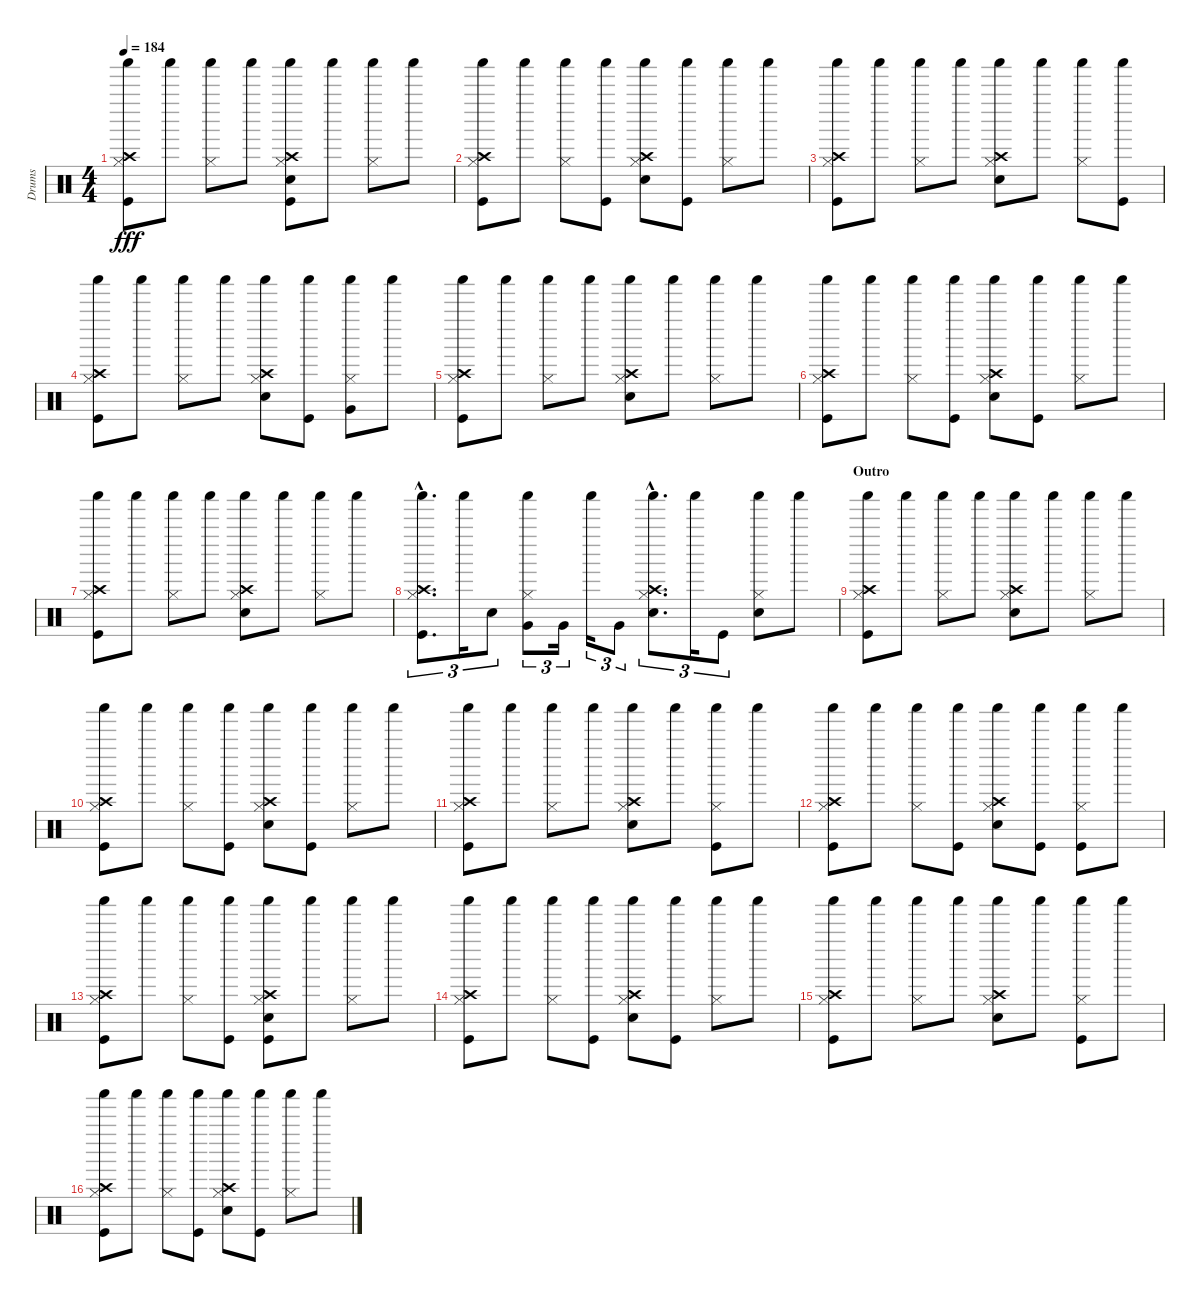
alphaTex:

\track ("Drums" "Drums") {instrument percussion}
\staff {score}
\articulation defaults
\ts (4 4)
\tempo 184
\clef neutral
\ks c
("Hi-Hat (closed)" "Shaker (hit)" "Crash high (hit)" "Kick (hit)").8{dy fff} "Shaker (hit)".8 ("Hi-Hat (closed)" "Shaker (hit)").8 "Shaker (hit)".8 ("Hi-Hat (closed)" "Shaker (hit)" "Crash high (hit)" "Snare (hit) 2" "Kick (hit)").8 "Shaker (hit)".8 ("Hi-Hat (closed)" "Shaker (hit)").8 "Shaker (hit)".8 |
("Hi-Hat (closed)" "Shaker (hit)" "Crash high (hit)" "Kick (hit)").8 "Shaker (hit)".8 ("Hi-Hat (closed)" "Shaker (hit)").8 ("Shaker (hit)" "Kick (hit)").8 ("Hi-Hat (closed)" "Shaker (hit)" "Crash high (hit)" "Snare (hit) 2").8 ("Shaker (hit)" "Kick (hit)").8 ("Hi-Hat (closed)" "Shaker (hit)").8 "Shaker (hit)".8 |
("Hi-Hat (closed)" "Shaker (hit)" "Crash high (hit)" "Kick (hit)").8 "Shaker (hit)".8 ("Hi-Hat (closed)" "Shaker (hit)").8 "Shaker (hit)".8 ("Hi-Hat (closed)" "Shaker (hit)" "Crash high (hit)" "Snare (hit) 2").8 "Shaker (hit)".8 ("Hi-Hat (closed)" "Shaker (hit)").8 ("Shaker (hit)" "Kick (hit)").8 |
("Hi-Hat (closed)" "Shaker (hit)" "Crash high (hit)" "Kick (hit)").8 "Shaker (hit)".8 ("Hi-Hat (closed)" "Shaker (hit)").8 "Shaker (hit)".8 ("Hi-Hat (closed)" "Shaker (hit)" "Crash high (hit)" "Snare (hit) 2").8 ("Shaker (hit)" "Kick (hit)").8 ("Hi-Hat (closed)" "Shaker (hit)" "Very Low Tom (hit)").8 "Shaker (hit)".8 |
("Hi-Hat (closed)" "Shaker (hit)" "Crash high (hit)" "Kick (hit)").8 "Shaker (hit)".8 ("Hi-Hat (closed)" "Shaker (hit)").8 "Shaker (hit)".8 ("Hi-Hat (closed)" "Shaker (hit)" "Crash high (hit)" "Snare (hit) 2").8 "Shaker (hit)".8 ("Hi-Hat (closed)" "Shaker (hit)").8 "Shaker (hit)".8 |
("Hi-Hat (closed)" "Shaker (hit)" "Crash high (hit)" "Kick (hit)").8 "Shaker (hit)".8 ("Hi-Hat (closed)" "Shaker (hit)").8 ("Shaker (hit)" "Kick (hit)").8 ("Hi-Hat (closed)" "Shaker (hit)" "Crash high (hit)" "Snare (hit) 2").8 ("Shaker (hit)" "Kick (hit)").8 ("Hi-Hat (closed)" "Shaker (hit)").8 "Shaker (hit)".8 |
("Hi-Hat (closed)" "Shaker (hit)" "Crash high (hit)" "Kick (hit)").8 "Shaker (hit)".8 ("Hi-Hat (closed)" "Shaker (hit)").8 "Shaker (hit)".8 ("Hi-Hat (closed)" "Shaker (hit)" "Crash high (hit)" "Snare (hit) 2").8 "Shaker (hit)".8 ("Hi-Hat (closed)" "Shaker (hit)").8 "Shaker (hit)".8 |
("Hi-Hat (closed)"{hac} "Shaker (hit)"{hac} "Crash high (hit)"{hac} "Kick (hit)"{hac}).8{d tu (3 2)} "Shaker (hit)".16{tu (3 2)} "Snare (hit) 2".8{tu (3 2)} ("Hi-Hat (closed)" "Shaker (hit)" "Very Low Tom (hit)").8{tu (3 2)} "Very Low Tom (hit)".16{tu (3 2)} "Shaker (hit)".16{tu (3 2)} "Very Low Tom (hit)".8{tu (3 2)} ("Hi-Hat (closed)"{hac} "Shaker (hit)"{hac} "Crash high (hit)"{hac} "Snare (hit) 2"{hac}).8{d tu (3 2)} "Shaker (hit)".16{tu (3 2)} "Kick (hit)".8{tu (3 2)} ("Hi-Hat (closed)" "Shaker (hit)" "Snare (hit) 2").8 "Shaker (hit)".8 |
\section ("" "Outro")
("Hi-Hat (closed)" "Shaker (hit)" "Crash high (hit)" "Kick (hit)").8 "Shaker (hit)".8 ("Hi-Hat (closed)" "Shaker (hit)").8 "Shaker (hit)".8 ("Hi-Hat (closed)" "Shaker (hit)" "Crash high (hit)" "Snare (hit) 2").8 "Shaker (hit)".8 ("Hi-Hat (closed)" "Shaker (hit)").8 "Shaker (hit)".8 |
("Hi-Hat (closed)" "Shaker (hit)" "Crash high (hit)" "Kick (hit)").8 "Shaker (hit)".8 ("Hi-Hat (closed)" "Shaker (hit)").8 ("Shaker (hit)" "Kick (hit)").8 ("Hi-Hat (closed)" "Shaker (hit)" "Crash high (hit)" "Snare (hit) 2").8 ("Shaker (hit)" "Kick (hit)").8 ("Hi-Hat (closed)" "Shaker (hit)").8 "Shaker (hit)".8 |
("Hi-Hat (closed)" "Shaker (hit)" "Crash high (hit)" "Kick (hit)").8 "Shaker (hit)".8 ("Hi-Hat (closed)" "Shaker (hit)").8 "Shaker (hit)".8 ("Hi-Hat (closed)" "Shaker (hit)" "Crash high (hit)" "Snare (hit) 2").8 "Shaker (hit)".8 ("Hi-Hat (closed)" "Shaker (hit)" "Kick (hit)").8 "Shaker (hit)".8 |
("Hi-Hat (closed)" "Shaker (hit)" "Crash high (hit)" "Kick (hit)").8 "Shaker (hit)".8 ("Hi-Hat (closed)" "Shaker (hit)").8 ("Shaker (hit)" "Kick (hit)").8 ("Hi-Hat (closed)" "Shaker (hit)" "Crash high (hit)" "Snare (hit) 2").8 ("Shaker (hit)" "Kick (hit)").8 ("Hi-Hat (closed)" "Shaker (hit)" "Kick (hit)").8 "Shaker (hit)".8 |
("Hi-Hat (closed)" "Shaker (hit)" "Crash high (hit)" "Kick (hit)").8 "Shaker (hit)".8 ("Hi-Hat (closed)" "Shaker (hit)").8 ("Shaker (hit)" "Kick (hit)").8 ("Hi-Hat (closed)" "Shaker (hit)" "Crash high (hit)" "Snare (hit) 2" "Kick (hit)").8 "Shaker (hit)".8 ("Hi-Hat (closed)" "Shaker (hit)").8 "Shaker (hit)".8 |
("Hi-Hat (closed)" "Shaker (hit)" "Crash high (hit)" "Kick (hit)").8 "Shaker (hit)".8 ("Hi-Hat (closed)" "Shaker (hit)").8 ("Shaker (hit)" "Kick (hit)").8 ("Hi-Hat (closed)" "Shaker (hit)" "Crash high (hit)" "Snare (hit) 2").8 ("Shaker (hit)" "Kick (hit)").8 ("Hi-Hat (closed)" "Shaker (hit)").8 "Shaker (hit)".8 |
("Hi-Hat (closed)" "Shaker (hit)" "Crash high (hit)" "Kick (hit)").8 "Shaker (hit)".8 ("Hi-Hat (closed)" "Shaker (hit)").8 "Shaker (hit)".8 ("Hi-Hat (closed)" "Shaker (hit)" "Crash high (hit)" "Snare (hit) 2").8 "Shaker (hit)".8 ("Hi-Hat (closed)" "Shaker (hit)" "Kick (hit)").8 "Shaker (hit)".8 |
("Hi-Hat (closed)" "Shaker (hit)" "Crash high (hit)" "Kick (hit)").8 "Shaker (hit)".8 ("Hi-Hat (closed)" "Shaker (hit)").8 ("Shaker (hit)" "Kick (hit)").8 ("Hi-Hat (closed)" "Shaker (hit)" "Crash high (hit)" "Snare (hit) 2").8 ("Shaker (hit)" "Kick (hit)").8 ("Hi-Hat (closed)" "Shaker (hit)").8 "Shaker (hit)".8
